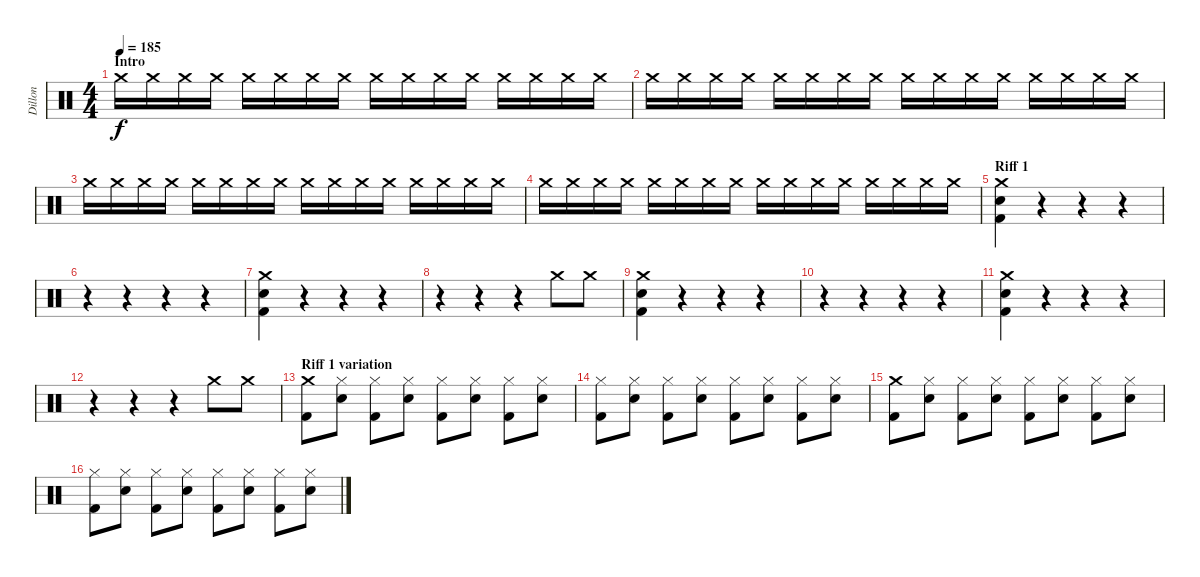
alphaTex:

\track ("Dillon" "Dillon") {instrument percussion}
\staff {score}
\articulation defaults
\ts (4 4)
\section ("" "Intro")
\tempo 185
\clef neutral
\ks c "Crash medium (hit)".16{dy f volume 0} "Crash medium (hit)".16{volume 13} "Crash medium (hit)".16 "Crash medium (hit)".16 "Crash medium (hit)".16 "Crash medium (hit)".16 "Crash medium (hit)".16 "Crash medium (hit)".16 "Crash medium (hit)".16 "Crash medium (hit)".16 "Crash medium (hit)".16 "Crash medium (hit)".16 "Crash medium (hit)".16 "Crash medium (hit)".16 "Crash medium (hit)".16 "Crash medium (hit)".16
|
"Crash medium (hit)".16 "Crash medium (hit)".16 "Crash medium (hit)".16 "Crash medium (hit)".16 "Crash medium (hit)".16 "Crash medium (hit)".16 "Crash medium (hit)".16 "Crash medium (hit)".16 "Crash medium (hit)".16 "Crash medium (hit)".16 "Crash medium (hit)".16 "Crash medium (hit)".16 "Crash medium (hit)".16 "Crash medium (hit)".16 "Crash medium (hit)".16 "Crash medium (hit)".16 |
"Crash medium (hit)".16 "Crash medium (hit)".16 "Crash medium (hit)".16 "Crash medium (hit)".16 "Crash medium (hit)".16 "Crash medium (hit)".16 "Crash medium (hit)".16 "Crash medium (hit)".16 "Crash medium (hit)".16 "Crash medium (hit)".16 "Crash medium (hit)".16 "Crash medium (hit)".16 "Crash medium (hit)".16 "Crash medium (hit)".16 "Crash medium (hit)".16 "Crash medium (hit)".16 |
"Crash medium (hit)".16 "Crash medium (hit)".16 "Crash medium (hit)".16 "Crash medium (hit)".16 "Crash medium (hit)".16 "Crash medium (hit)".16 "Crash medium (hit)".16 "Crash medium (hit)".16 "Crash medium (hit)".16 "Crash medium (hit)".16 "Crash medium (hit)".16 "Crash medium (hit)".16 "Crash medium (hit)".16 "Crash medium (hit)".16 "Crash medium (hit)".16 "Crash medium (hit)".16 |
\section ("" "Riff 1")
("Crash medium (hit)" "Electric Snare (hit)" "Kick (hit) 2").4 r.4 r.4 r.4 |
r.4 r.4 r.4 r.4 |
("Crash medium (hit)" "Electric Snare (hit)" "Kick (hit) 2").4 r.4 r.4 r.4 |
r.4 r.4 r.4 "Crash medium (hit)".8 "Crash medium (hit)".8 |
("Crash medium (hit)" "Electric Snare (hit)" "Kick (hit) 2").4 r.4 r.4 r.4 |
r.4 r.4 r.4 r.4 |
("Crash medium (hit)" "Electric Snare (hit)" "Kick (hit) 2").4 r.4 r.4 r.4 |
r.4 r.4 r.4 "Crash medium (hit)".8 "Crash medium (hit)".8 |
\section ("" "Riff 1 variation")
("Crash medium (hit)" "Kick (hit) 2").8 ("Hi-Hat (closed)" "Electric Snare (hit)").8 ("Hi-Hat (closed)" "Kick (hit) 2").8 ("Hi-Hat (closed)" "Electric Snare (hit)").8 ("Hi-Hat (closed)" "Kick (hit) 2").8 ("Hi-Hat (closed)" "Electric Snare (hit)").8 ("Hi-Hat (closed)" "Kick (hit) 2").8 ("Hi-Hat (closed)" "Electric Snare (hit)").8 |
("Hi-Hat (closed)" "Kick (hit) 2").8 ("Hi-Hat (closed)" "Electric Snare (hit)").8 ("Hi-Hat (closed)" "Kick (hit) 2").8 ("Hi-Hat (closed)" "Electric Snare (hit)").8 ("Hi-Hat (closed)" "Kick (hit) 2").8 ("Hi-Hat (closed)" "Electric Snare (hit)").8 ("Hi-Hat (closed)" "Kick (hit) 2").8 ("Hi-Hat (closed)" "Electric Snare (hit)").8 |
("Crash medium (hit)" "Kick (hit) 2").8 ("Hi-Hat (closed)" "Electric Snare (hit)").8 ("Hi-Hat (closed)" "Kick (hit) 2").8 ("Hi-Hat (closed)" "Electric Snare (hit)").8 ("Hi-Hat (closed)" "Kick (hit) 2").8 ("Hi-Hat (closed)" "Electric Snare (hit)").8 ("Hi-Hat (closed)" "Kick (hit) 2").8 ("Hi-Hat (closed)" "Electric Snare (hit)").8 |
("Hi-Hat (closed)" "Kick (hit) 2").8 ("Hi-Hat (closed)" "Electric Snare (hit)").8 ("Hi-Hat (closed)" "Kick (hit) 2").8 ("Hi-Hat (closed)" "Electric Snare (hit)").8 ("Hi-Hat (closed)" "Kick (hit) 2").8 ("Hi-Hat (closed)" "Electric Snare (hit)").8 ("Hi-Hat (closed)" "Kick (hit) 2").8 ("Hi-Hat (closed)" "Electric Snare (hit)").8
